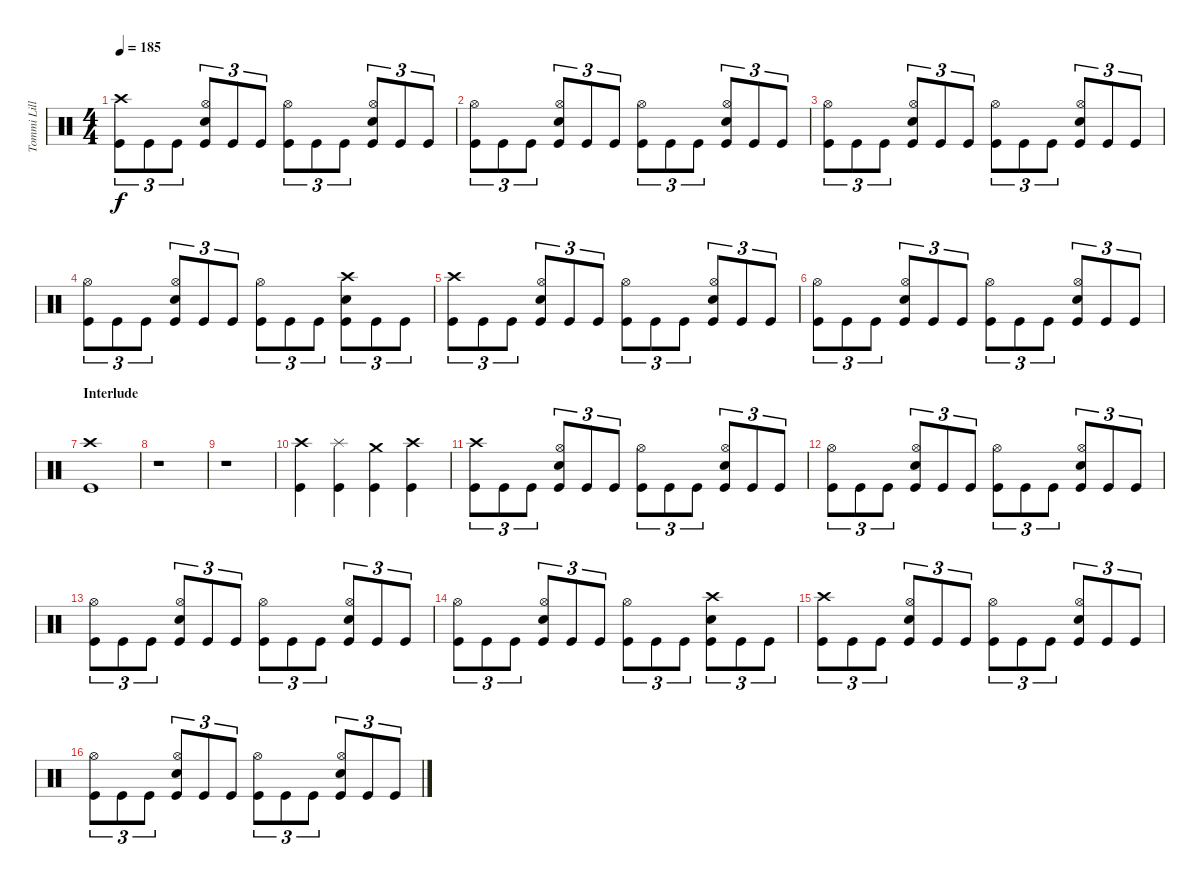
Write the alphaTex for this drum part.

\track ("Tommi Lillman" "Tommi Lill") {instrument percussion}
\staff {score}
\articulation defaults
\ts (4 4)
\tempo 185
\clef neutral
\ks c
("Crash high (hit)" "Kick (hit)").8{tu (3 2) dy f} "Kick (hit)".8{tu (3 2)} "Kick (hit)".8{tu (3 2)} ("Hi-Hat (open)" "Snare (hit) 2" "Kick (hit)").8{tu (3 2)} "Kick (hit)".8{tu (3 2)} "Kick (hit)".8{tu (3 2)} ("Hi-Hat (open)" "Kick (hit)").8{tu (3 2)} "Kick (hit)".8{tu (3 2)} "Kick (hit)".8{tu (3 2)} ("Hi-Hat (open)" "Snare (hit) 2" "Kick (hit)").8{tu (3 2)} "Kick (hit)".8{tu (3 2)} "Kick (hit)".8{tu (3 2)} |
("Hi-Hat (open)" "Kick (hit)").8{tu (3 2)} "Kick (hit)".8{tu (3 2)} "Kick (hit)".8{tu (3 2)} ("Hi-Hat (open)" "Snare (hit) 2" "Kick (hit)").8{tu (3 2)} "Kick (hit)".8{tu (3 2)} "Kick (hit)".8{tu (3 2)} ("Hi-Hat (open)" "Kick (hit)").8{tu (3 2)} "Kick (hit)".8{tu (3 2)} "Kick (hit)".8{tu (3 2)} ("Hi-Hat (open)" "Snare (hit) 2" "Kick (hit)").8{tu (3 2)} "Kick (hit)".8{tu (3 2)} "Kick (hit)".8{tu (3 2)} |
("Hi-Hat (open)" "Kick (hit)").8{tu (3 2)} "Kick (hit)".8{tu (3 2)} "Kick (hit)".8{tu (3 2)} ("Hi-Hat (open)" "Snare (hit) 2" "Kick (hit)").8{tu (3 2)} "Kick (hit)".8{tu (3 2)} "Kick (hit)".8{tu (3 2)} ("Hi-Hat (open)" "Kick (hit)").8{tu (3 2)} "Kick (hit)".8{tu (3 2)} "Kick (hit)".8{tu (3 2)} ("Hi-Hat (open)" "Snare (hit) 2" "Kick (hit)").8{tu (3 2)} "Kick (hit)".8{tu (3 2)} "Kick (hit)".8{tu (3 2)} |
("Hi-Hat (open)" "Kick (hit)").8{tu (3 2)} "Kick (hit)".8{tu (3 2)} "Kick (hit)".8{tu (3 2)} ("Hi-Hat (open)" "Snare (hit) 2" "Kick (hit)").8{tu (3 2)} "Kick (hit)".8{tu (3 2)} "Kick (hit)".8{tu (3 2)} ("Hi-Hat (open)" "Kick (hit)").8{tu (3 2)} "Kick (hit)".8{tu (3 2)} "Kick (hit)".8{tu (3 2)} ("Crash high (hit)" "Snare (hit) 2" "Kick (hit)").8{tu (3 2)} "Kick (hit)".8{tu (3 2)} "Kick (hit)".8{tu (3 2)} |
("Crash high (hit)" "Kick (hit)").8{tu (3 2)} "Kick (hit)".8{tu (3 2)} "Kick (hit)".8{tu (3 2)} ("Hi-Hat (open)" "Snare (hit) 2" "Kick (hit)").8{tu (3 2)} "Kick (hit)".8{tu (3 2)} "Kick (hit)".8{tu (3 2)} ("Hi-Hat (open)" "Kick (hit)").8{tu (3 2)} "Kick (hit)".8{tu (3 2)} "Kick (hit)".8{tu (3 2)} ("Hi-Hat (open)" "Snare (hit) 2" "Kick (hit)").8{tu (3 2)} "Kick (hit)".8{tu (3 2)} "Kick (hit)".8{tu (3 2)} |
("Hi-Hat (open)" "Kick (hit)").8{tu (3 2)} "Kick (hit)".8{tu (3 2)} "Kick (hit)".8{tu (3 2)} ("Hi-Hat (open)" "Snare (hit) 2" "Kick (hit)").8{tu (3 2)} "Kick (hit)".8{tu (3 2)} "Kick (hit)".8{tu (3 2)} ("Hi-Hat (open)" "Kick (hit)").8{tu (3 2)} "Kick (hit)".8{tu (3 2)} "Kick (hit)".8{tu (3 2)} ("Hi-Hat (open)" "Snare (hit) 2" "Kick (hit)").8{tu (3 2)} "Kick (hit)".8{tu (3 2)} "Kick (hit)".8{tu (3 2)} |
\section ("" "Interlude")
("Crash high (hit)" "Kick (hit)").1 |
r.1 |
r.1 |
("Crash high (hit)" "Kick (hit)").4 ("Splash (hit)" "Kick (hit)").4 ("Crash medium (hit)" "Kick (hit)").4 ("Crash high (hit)" "Kick (hit)").4 |
("Crash high (hit)" "Kick (hit)").8{tu (3 2)} "Kick (hit)".8{tu (3 2)} "Kick (hit)".8{tu (3 2)} ("Hi-Hat (open)" "Snare (hit) 2" "Kick (hit)").8{tu (3 2)} "Kick (hit)".8{tu (3 2)} "Kick (hit)".8{tu (3 2)} ("Hi-Hat (open)" "Kick (hit)").8{tu (3 2)} "Kick (hit)".8{tu (3 2)} "Kick (hit)".8{tu (3 2)} ("Hi-Hat (open)" "Snare (hit) 2" "Kick (hit)").8{tu (3 2)} "Kick (hit)".8{tu (3 2)} "Kick (hit)".8{tu (3 2)} |
("Hi-Hat (open)" "Kick (hit)").8{tu (3 2)} "Kick (hit)".8{tu (3 2)} "Kick (hit)".8{tu (3 2)} ("Hi-Hat (open)" "Snare (hit) 2" "Kick (hit)").8{tu (3 2)} "Kick (hit)".8{tu (3 2)} "Kick (hit)".8{tu (3 2)} ("Hi-Hat (open)" "Kick (hit)").8{tu (3 2)} "Kick (hit)".8{tu (3 2)} "Kick (hit)".8{tu (3 2)} ("Hi-Hat (open)" "Snare (hit) 2" "Kick (hit)").8{tu (3 2)} "Kick (hit)".8{tu (3 2)} "Kick (hit)".8{tu (3 2)} |
("Hi-Hat (open)" "Kick (hit)").8{tu (3 2)} "Kick (hit)".8{tu (3 2)} "Kick (hit)".8{tu (3 2)} ("Hi-Hat (open)" "Snare (hit) 2" "Kick (hit)").8{tu (3 2)} "Kick (hit)".8{tu (3 2)} "Kick (hit)".8{tu (3 2)} ("Hi-Hat (open)" "Kick (hit)").8{tu (3 2)} "Kick (hit)".8{tu (3 2)} "Kick (hit)".8{tu (3 2)} ("Hi-Hat (open)" "Snare (hit) 2" "Kick (hit)").8{tu (3 2)} "Kick (hit)".8{tu (3 2)} "Kick (hit)".8{tu (3 2)} |
("Hi-Hat (open)" "Kick (hit)").8{tu (3 2)} "Kick (hit)".8{tu (3 2)} "Kick (hit)".8{tu (3 2)} ("Hi-Hat (open)" "Snare (hit) 2" "Kick (hit)").8{tu (3 2)} "Kick (hit)".8{tu (3 2)} "Kick (hit)".8{tu (3 2)} ("Hi-Hat (open)" "Kick (hit)").8{tu (3 2)} "Kick (hit)".8{tu (3 2)} "Kick (hit)".8{tu (3 2)} ("Crash high (hit)" "Snare (hit) 2" "Kick (hit)").8{tu (3 2)} "Kick (hit)".8{tu (3 2)} "Kick (hit)".8{tu (3 2)} |
("Crash high (hit)" "Kick (hit)").8{tu (3 2)} "Kick (hit)".8{tu (3 2)} "Kick (hit)".8{tu (3 2)} ("Hi-Hat (open)" "Snare (hit) 2" "Kick (hit)").8{tu (3 2)} "Kick (hit)".8{tu (3 2)} "Kick (hit)".8{tu (3 2)} ("Hi-Hat (open)" "Kick (hit)").8{tu (3 2)} "Kick (hit)".8{tu (3 2)} "Kick (hit)".8{tu (3 2)} ("Hi-Hat (open)" "Snare (hit) 2" "Kick (hit)").8{tu (3 2)} "Kick (hit)".8{tu (3 2)} "Kick (hit)".8{tu (3 2)} |
("Hi-Hat (open)" "Kick (hit)").8{tu (3 2)} "Kick (hit)".8{tu (3 2)} "Kick (hit)".8{tu (3 2)} ("Hi-Hat (open)" "Snare (hit) 2" "Kick (hit)").8{tu (3 2)} "Kick (hit)".8{tu (3 2)} "Kick (hit)".8{tu (3 2)} ("Hi-Hat (open)" "Kick (hit)").8{tu (3 2)} "Kick (hit)".8{tu (3 2)} "Kick (hit)".8{tu (3 2)} ("Hi-Hat (open)" "Snare (hit) 2" "Kick (hit)").8{tu (3 2)} "Kick (hit)".8{tu (3 2)} "Kick (hit)".8{tu (3 2)}
